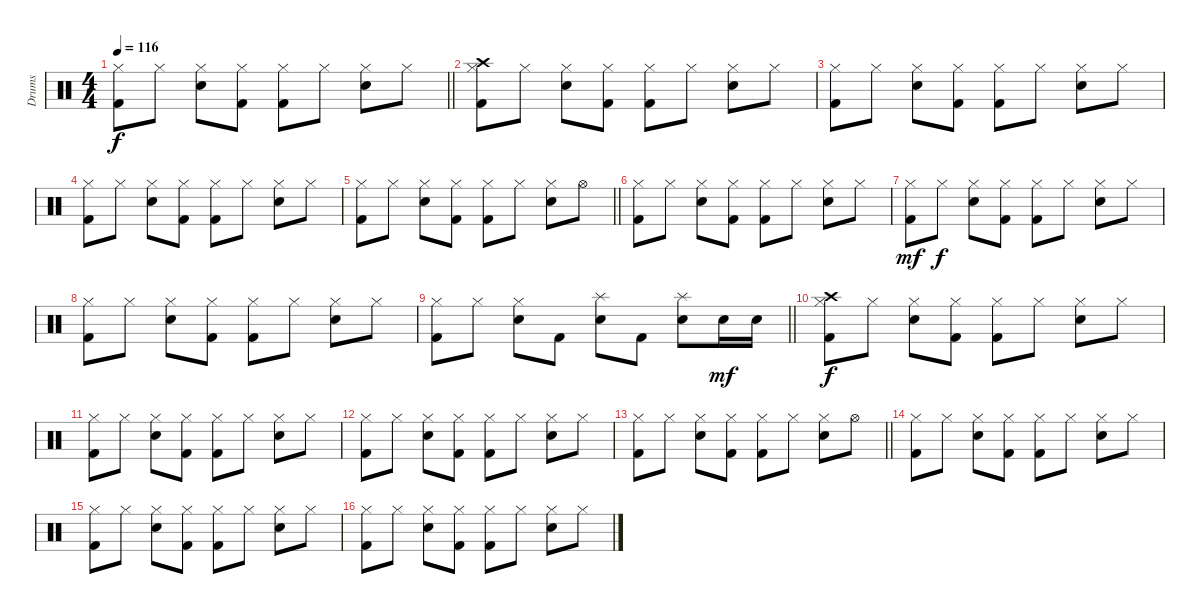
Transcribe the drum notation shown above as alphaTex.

\track ("Drums" "Drums") {instrument percussion}
\staff {score}
\articulation defaults
\ts (4 4)
\tempo 116
\clef neutral
\barLineRight lightlight
\ks c
("Kick (hit) 2" "Hi-Hat (closed)").8{dy f} "Hi-Hat (closed)".8 ("Electric Snare (hit)" "Hi-Hat (closed)").8 ("Kick (hit) 2" "Hi-Hat (closed)").8 ("Kick (hit) 2" "Hi-Hat (closed)").8 "Hi-Hat (closed)".8 ("Electric Snare (hit)" "Hi-Hat (closed)").8 "Hi-Hat (closed)".8 |
("Crash high (hit)" "Kick (hit) 2" "Hi-Hat (closed)").8 "Hi-Hat (closed)".8 ("Electric Snare (hit)" "Hi-Hat (closed)").8 ("Kick (hit) 2" "Hi-Hat (closed)").8 ("Kick (hit) 2" "Hi-Hat (closed)").8 "Hi-Hat (closed)".8 ("Electric Snare (hit)" "Hi-Hat (closed)").8 "Hi-Hat (closed)".8 |
("Kick (hit) 2" "Hi-Hat (closed)").8 "Hi-Hat (closed)".8 ("Electric Snare (hit)" "Hi-Hat (closed)").8 ("Kick (hit) 2" "Hi-Hat (closed)").8 ("Kick (hit) 2" "Hi-Hat (closed)").8 "Hi-Hat (closed)".8 ("Electric Snare (hit)" "Hi-Hat (closed)").8 "Hi-Hat (closed)".8 |
("Kick (hit) 2" "Hi-Hat (closed)").8 "Hi-Hat (closed)".8 ("Electric Snare (hit)" "Hi-Hat (closed)").8 ("Kick (hit) 2" "Hi-Hat (closed)").8 ("Kick (hit) 2" "Hi-Hat (closed)").8 "Hi-Hat (closed)".8 ("Electric Snare (hit)" "Hi-Hat (closed)").8 "Hi-Hat (closed)".8 |
\barLineRight lightlight
("Kick (hit) 2" "Hi-Hat (closed)").8 "Hi-Hat (closed)".8 ("Electric Snare (hit)" "Hi-Hat (closed)").8 ("Kick (hit) 2" "Hi-Hat (closed)").8 ("Kick (hit) 2" "Hi-Hat (closed)").8 "Hi-Hat (closed)".8 ("Electric Snare (hit)" "Hi-Hat (closed)").8 "Hi-Hat (open)".8 |
("Kick (hit) 2" "Hi-Hat (closed)").8 "Hi-Hat (closed)".8 ("Electric Snare (hit)" "Hi-Hat (closed)").8 ("Kick (hit) 2" "Hi-Hat (closed)").8 ("Kick (hit) 2" "Hi-Hat (closed)").8 "Hi-Hat (closed)".8 ("Electric Snare (hit)" "Hi-Hat (closed)").8 "Hi-Hat (closed)".8 |
("Kick (hit) 2" "Hi-Hat (closed)").8{dy mf} "Hi-Hat (closed)".8{dy f} ("Electric Snare (hit)" "Hi-Hat (closed)").8 ("Kick (hit) 2" "Hi-Hat (closed)").8 ("Kick (hit) 2" "Hi-Hat (closed)").8 "Hi-Hat (closed)".8 ("Electric Snare (hit)" "Hi-Hat (closed)").8 "Hi-Hat (closed)".8 |
("Kick (hit) 2" "Hi-Hat (closed)").8 "Hi-Hat (closed)".8 ("Electric Snare (hit)" "Hi-Hat (closed)").8 ("Kick (hit) 2" "Hi-Hat (closed)").8 ("Kick (hit) 2" "Hi-Hat (closed)").8 "Hi-Hat (closed)".8 ("Electric Snare (hit)" "Hi-Hat (closed)").8 "Hi-Hat (closed)".8 |
\barLineRight lightlight
("Kick (hit) 2" "Hi-Hat (closed)").8 "Hi-Hat (closed)".8 ("Electric Snare (hit)" "Hi-Hat (closed)").8 "Kick (hit) 2".8 ("Electric Snare (hit)" "Splash (hit)").8 "Kick (hit) 2".8 ("Electric Snare (hit)" "Splash (hit)").8 "Electric Snare (hit)".16{dy mf} "Electric Snare (hit)".16 |
("Crash high (hit)" "Kick (hit) 2" "Hi-Hat (closed)").8{dy f} "Hi-Hat (closed)".8 ("Electric Snare (hit)" "Hi-Hat (closed)").8 ("Kick (hit) 2" "Hi-Hat (closed)").8 ("Kick (hit) 2" "Hi-Hat (closed)").8 "Hi-Hat (closed)".8 ("Electric Snare (hit)" "Hi-Hat (closed)").8 "Hi-Hat (closed)".8 |
("Kick (hit) 2" "Hi-Hat (closed)").8 "Hi-Hat (closed)".8 ("Electric Snare (hit)" "Hi-Hat (closed)").8 ("Kick (hit) 2" "Hi-Hat (closed)").8 ("Kick (hit) 2" "Hi-Hat (closed)").8 "Hi-Hat (closed)".8 ("Electric Snare (hit)" "Hi-Hat (closed)").8 "Hi-Hat (closed)".8 |
("Kick (hit) 2" "Hi-Hat (closed)").8 "Hi-Hat (closed)".8 ("Electric Snare (hit)" "Hi-Hat (closed)").8 ("Kick (hit) 2" "Hi-Hat (closed)").8 ("Kick (hit) 2" "Hi-Hat (closed)").8 "Hi-Hat (closed)".8 ("Electric Snare (hit)" "Hi-Hat (closed)").8 "Hi-Hat (closed)".8 |
\barLineRight lightlight
("Kick (hit) 2" "Hi-Hat (closed)").8 "Hi-Hat (closed)".8 ("Electric Snare (hit)" "Hi-Hat (closed)").8 ("Kick (hit) 2" "Hi-Hat (closed)").8 ("Kick (hit) 2" "Hi-Hat (closed)").8 "Hi-Hat (closed)".8 ("Electric Snare (hit)" "Hi-Hat (closed)").8 "Hi-Hat (open)".8 |
("Kick (hit) 2" "Hi-Hat (closed)").8 "Hi-Hat (closed)".8 ("Electric Snare (hit)" "Hi-Hat (closed)").8 ("Kick (hit) 2" "Hi-Hat (closed)").8 ("Kick (hit) 2" "Hi-Hat (closed)").8 "Hi-Hat (closed)".8 ("Electric Snare (hit)" "Hi-Hat (closed)").8 "Hi-Hat (closed)".8 |
("Kick (hit) 2" "Hi-Hat (closed)").8 "Hi-Hat (closed)".8 ("Electric Snare (hit)" "Hi-Hat (closed)").8 ("Kick (hit) 2" "Hi-Hat (closed)").8 ("Kick (hit) 2" "Hi-Hat (closed)").8 "Hi-Hat (closed)".8 ("Electric Snare (hit)" "Hi-Hat (closed)").8 "Hi-Hat (closed)".8 |
("Kick (hit) 2" "Hi-Hat (closed)").8 "Hi-Hat (closed)".8 ("Electric Snare (hit)" "Hi-Hat (closed)").8 ("Kick (hit) 2" "Hi-Hat (closed)").8 ("Kick (hit) 2" "Hi-Hat (closed)").8 "Hi-Hat (closed)".8 ("Electric Snare (hit)" "Hi-Hat (closed)").8 "Hi-Hat (closed)".8
